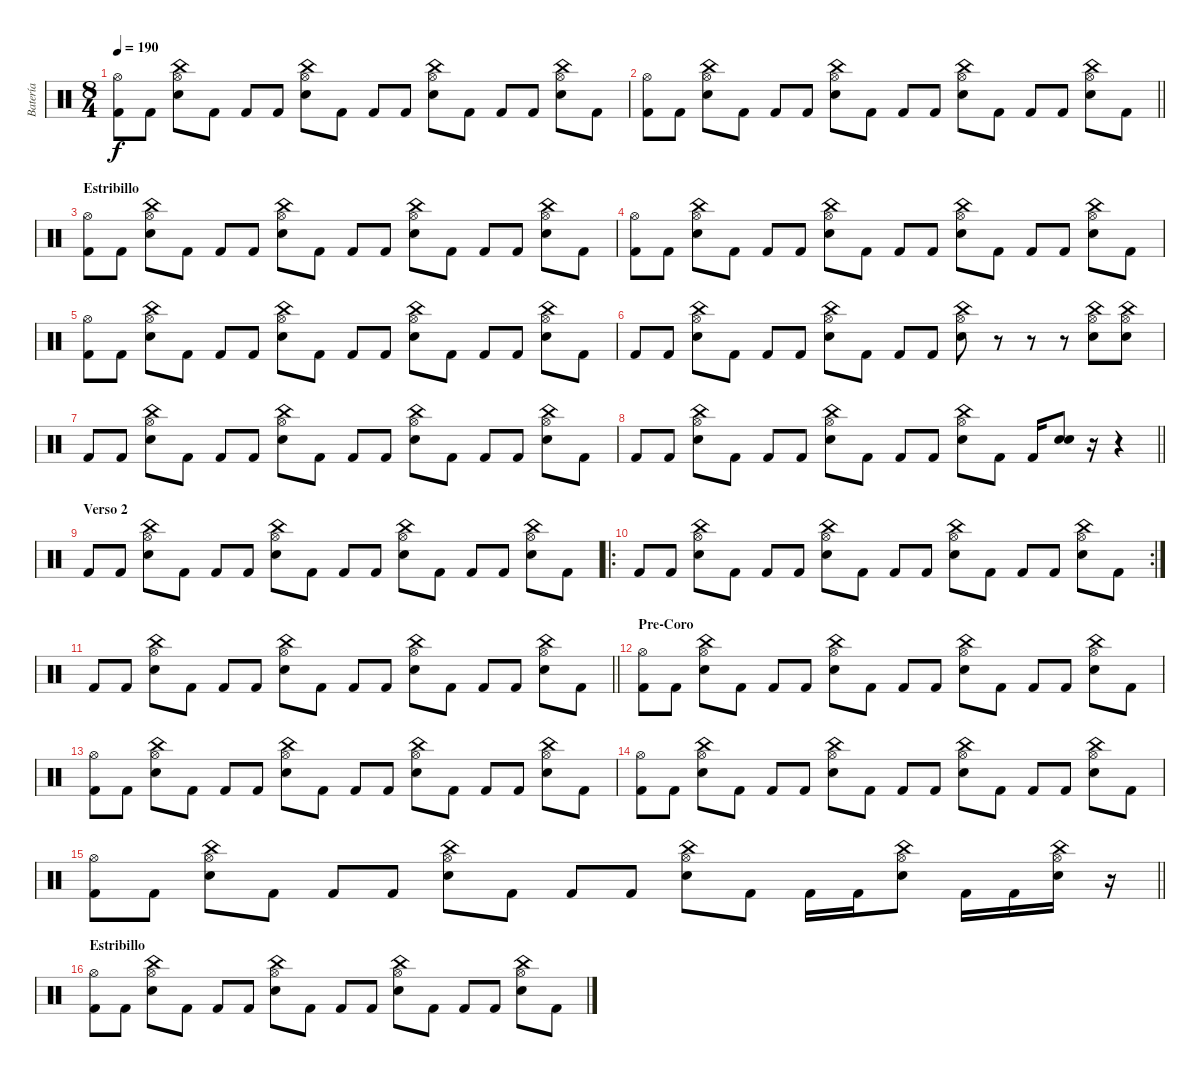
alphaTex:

\track ("Batería" "Batería") {instrument percussion}
\staff {score}
\articulation defaults
\ts (8 4)
\tempo 190
\clef neutral
\ks c
("Kick (hit) 2" "Hi-Hat (open)").8{dy f} "Kick (hit) 2".8 ("Snare (hit) 2" "Hi-Hat (open)" "China (hit)").8 "Kick (hit) 2".8 "Kick (hit) 2".8 "Kick (hit) 2".8 ("Snare (hit) 2" "Hi-Hat (open)" "China (hit)").8 "Kick (hit) 2".8 "Kick (hit) 2".8 "Kick (hit) 2".8 ("Snare (hit) 2" "Hi-Hat (open)" "China (hit)").8 "Kick (hit) 2".8 "Kick (hit) 2".8 "Kick (hit) 2".8 ("Snare (hit) 2" "Hi-Hat (open)" "China (hit)").8 "Kick (hit) 2".8 |
\barLineRight lightlight
("Kick (hit) 2" "Hi-Hat (open)").8 "Kick (hit) 2".8 ("Snare (hit) 2" "Hi-Hat (open)" "China (hit)").8 "Kick (hit) 2".8 "Kick (hit) 2".8 "Kick (hit) 2".8 ("Snare (hit) 2" "Hi-Hat (open)" "China (hit)").8 "Kick (hit) 2".8 "Kick (hit) 2".8 "Kick (hit) 2".8 ("Snare (hit) 2" "Hi-Hat (open)" "China (hit)").8 "Kick (hit) 2".8 "Kick (hit) 2".8 "Kick (hit) 2".8 ("Snare (hit) 2" "Hi-Hat (open)" "China (hit)").8 "Kick (hit) 2".8 |
\section ("" "Estribillo")
("Kick (hit) 2" "Hi-Hat (open)").8 "Kick (hit) 2".8 ("Snare (hit) 2" "Hi-Hat (open)" "China (hit)").8 "Kick (hit) 2".8 "Kick (hit) 2".8 "Kick (hit) 2".8 ("Snare (hit) 2" "Hi-Hat (open)" "China (hit)").8 "Kick (hit) 2".8 "Kick (hit) 2".8 "Kick (hit) 2".8 ("Snare (hit) 2" "Hi-Hat (open)" "China (hit)").8 "Kick (hit) 2".8 "Kick (hit) 2".8 "Kick (hit) 2".8 ("Snare (hit) 2" "Hi-Hat (open)" "China (hit)").8 "Kick (hit) 2".8 |
("Kick (hit) 2" "Hi-Hat (open)").8 "Kick (hit) 2".8 ("Snare (hit) 2" "Hi-Hat (open)" "China (hit)").8 "Kick (hit) 2".8 "Kick (hit) 2".8 "Kick (hit) 2".8 ("Snare (hit) 2" "Hi-Hat (open)" "China (hit)").8 "Kick (hit) 2".8 "Kick (hit) 2".8 "Kick (hit) 2".8 ("Snare (hit) 2" "Hi-Hat (open)" "China (hit)").8 "Kick (hit) 2".8 "Kick (hit) 2".8 "Kick (hit) 2".8 ("Snare (hit) 2" "Hi-Hat (open)" "China (hit)").8 "Kick (hit) 2".8 |
("Kick (hit) 2" "Hi-Hat (open)").8 "Kick (hit) 2".8 ("Snare (hit) 2" "Hi-Hat (open)" "China (hit)").8 "Kick (hit) 2".8 "Kick (hit) 2".8 "Kick (hit) 2".8 ("Snare (hit) 2" "Hi-Hat (open)" "China (hit)").8 "Kick (hit) 2".8 "Kick (hit) 2".8 "Kick (hit) 2".8 ("Snare (hit) 2" "Hi-Hat (open)" "China (hit)").8 "Kick (hit) 2".8 "Kick (hit) 2".8 "Kick (hit) 2".8 ("Snare (hit) 2" "Hi-Hat (open)" "China (hit)").8 "Kick (hit) 2".8 |
"Kick (hit) 2".8 "Kick (hit) 2".8 ("Snare (hit) 2" "Hi-Hat (open)" "China (hit)").8 "Kick (hit) 2".8 "Kick (hit) 2".8 "Kick (hit) 2".8 ("Snare (hit) 2" "Hi-Hat (open)" "China (hit)").8 "Kick (hit) 2".8 "Kick (hit) 2".8 "Kick (hit) 2".8 ("Snare (hit) 2" "Hi-Hat (open)" "China (hit)").8 r.8 r.8 r.8 ("Snare (hit) 2" "Hi-Hat (open)" "China (hit)").8 ("Snare (hit) 2" "Hi-Hat (open)" "China (hit)").8 |
"Kick (hit) 2".8 "Kick (hit) 2".8 ("Snare (hit) 2" "Hi-Hat (open)" "China (hit)").8 "Kick (hit) 2".8 "Kick (hit) 2".8 "Kick (hit) 2".8 ("Snare (hit) 2" "Hi-Hat (open)" "China (hit)").8 "Kick (hit) 2".8 "Kick (hit) 2".8 "Kick (hit) 2".8 ("Snare (hit) 2" "Hi-Hat (open)" "China (hit)").8 "Kick (hit) 2".8 "Kick (hit) 2".8 "Kick (hit) 2".8 ("Snare (hit) 2" "Hi-Hat (open)" "China (hit)").8 "Kick (hit) 2".8 |
\barLineRight lightlight "Kick (hit) 2".8 "Kick (hit) 2".8
("Snare (hit) 2" "Hi-Hat (open)" "China (hit)").8 "Kick (hit) 2".8 "Kick (hit) 2".8 "Kick (hit) 2".8 ("Snare (hit) 2" "Hi-Hat (open)" "China (hit)").8 "Kick (hit) 2".8 "Kick (hit) 2".8 "Kick (hit) 2".8 ("Snare (hit) 2" "Hi-Hat (open)" "China (hit)").8 "Kick (hit) 2".8 "Kick (hit) 2".16 ("Snare (hit) 2" "Electric Snare (hit)").8 r.16 r.4 |
\section ("" "Verso 2")
"Kick (hit) 2".8 "Kick (hit) 2".8 ("Snare (hit) 2" "Hi-Hat (open)" "China (hit)").8 "Kick (hit) 2".8 "Kick (hit) 2".8 "Kick (hit) 2".8 ("Snare (hit) 2" "Hi-Hat (open)" "China (hit)").8 "Kick (hit) 2".8 "Kick (hit) 2".8 "Kick (hit) 2".8 ("Snare (hit) 2" "Hi-Hat (open)" "China (hit)").8 "Kick (hit) 2".8 "Kick (hit) 2".8 "Kick (hit) 2".8 ("Snare (hit) 2" "Hi-Hat (open)" "China (hit)").8 "Kick (hit) 2".8 |
\ro
\rc 2 "Kick (hit) 2".8 "Kick (hit) 2".8
("Snare (hit) 2" "Hi-Hat (open)" "China (hit)").8 "Kick (hit) 2".8 "Kick (hit) 2".8 "Kick (hit) 2".8 ("Snare (hit) 2" "Hi-Hat (open)" "China (hit)").8 "Kick (hit) 2".8 "Kick (hit) 2".8 "Kick (hit) 2".8 ("Snare (hit) 2" "Hi-Hat (open)" "China (hit)").8 "Kick (hit) 2".8 "Kick (hit) 2".8 "Kick (hit) 2".8 ("Snare (hit) 2" "Hi-Hat (open)" "China (hit)").8 "Kick (hit) 2".8 |
\barLineRight lightlight "Kick (hit) 2".8 "Kick (hit) 2".8
("Snare (hit) 2" "Hi-Hat (open)" "China (hit)").8 "Kick (hit) 2".8 "Kick (hit) 2".8 "Kick (hit) 2".8 ("Snare (hit) 2" "Hi-Hat (open)" "China (hit)").8 "Kick (hit) 2".8 "Kick (hit) 2".8 "Kick (hit) 2".8 ("Snare (hit) 2" "Hi-Hat (open)" "China (hit)").8 "Kick (hit) 2".8 "Kick (hit) 2".8 "Kick (hit) 2".8 ("Snare (hit) 2" "Hi-Hat (open)" "China (hit)").8 "Kick (hit) 2".8 |
\section ("" "Pre-Coro")
("Kick (hit) 2" "Hi-Hat (open)").8 "Kick (hit) 2".8 ("Snare (hit) 2" "Hi-Hat (open)" "China (hit)").8 "Kick (hit) 2".8 "Kick (hit) 2".8 "Kick (hit) 2".8 ("Snare (hit) 2" "Hi-Hat (open)" "China (hit)").8 "Kick (hit) 2".8 "Kick (hit) 2".8 "Kick (hit) 2".8 ("Snare (hit) 2" "Hi-Hat (open)" "China (hit)").8 "Kick (hit) 2".8 "Kick (hit) 2".8 "Kick (hit) 2".8 ("Snare (hit) 2" "Hi-Hat (open)" "China (hit)").8 "Kick (hit) 2".8 |
("Kick (hit) 2" "Hi-Hat (open)").8 "Kick (hit) 2".8 ("Snare (hit) 2" "Hi-Hat (open)" "China (hit)").8 "Kick (hit) 2".8 "Kick (hit) 2".8 "Kick (hit) 2".8 ("Snare (hit) 2" "Hi-Hat (open)" "China (hit)").8 "Kick (hit) 2".8 "Kick (hit) 2".8 "Kick (hit) 2".8 ("Snare (hit) 2" "Hi-Hat (open)" "China (hit)").8 "Kick (hit) 2".8 "Kick (hit) 2".8 "Kick (hit) 2".8 ("Snare (hit) 2" "Hi-Hat (open)" "China (hit)").8 "Kick (hit) 2".8 |
("Kick (hit) 2" "Hi-Hat (open)").8 "Kick (hit) 2".8 ("Snare (hit) 2" "Hi-Hat (open)" "China (hit)").8 "Kick (hit) 2".8 "Kick (hit) 2".8 "Kick (hit) 2".8 ("Snare (hit) 2" "Hi-Hat (open)" "China (hit)").8 "Kick (hit) 2".8 "Kick (hit) 2".8 "Kick (hit) 2".8 ("Snare (hit) 2" "Hi-Hat (open)" "China (hit)").8 "Kick (hit) 2".8 "Kick (hit) 2".8 "Kick (hit) 2".8 ("Snare (hit) 2" "Hi-Hat (open)" "China (hit)").8 "Kick (hit) 2".8 |
\barLineRight lightlight
("Kick (hit) 2" "Hi-Hat (open)").8 "Kick (hit) 2".8 ("Snare (hit) 2" "Hi-Hat (open)" "China (hit)").8 "Kick (hit) 2".8 "Kick (hit) 2".8 "Kick (hit) 2".8 ("Snare (hit) 2" "Hi-Hat (open)" "China (hit)").8 "Kick (hit) 2".8 "Kick (hit) 2".8 "Kick (hit) 2".8 ("Snare (hit) 2" "Hi-Hat (open)" "China (hit)").8 "Kick (hit) 2".8 "Kick (hit) 2".16 "Kick (hit) 2".16 ("Snare (hit) 2" "Hi-Hat (open)" "China (hit)").8 "Kick (hit) 2".16 "Kick (hit) 2".16 ("Snare (hit) 2" "China (hit)" "Hi-Hat (open)").16 r.16 |
\section ("" "Estribillo")
("Kick (hit) 2" "Hi-Hat (open)").8 "Kick (hit) 2".8 ("Snare (hit) 2" "Hi-Hat (open)" "China (hit)").8 "Kick (hit) 2".8 "Kick (hit) 2".8 "Kick (hit) 2".8 ("Snare (hit) 2" "Hi-Hat (open)" "China (hit)").8 "Kick (hit) 2".8 "Kick (hit) 2".8 "Kick (hit) 2".8 ("Snare (hit) 2" "Hi-Hat (open)" "China (hit)").8 "Kick (hit) 2".8 "Kick (hit) 2".8 "Kick (hit) 2".8 ("Snare (hit) 2" "Hi-Hat (open)" "China (hit)").8 "Kick (hit) 2".8
